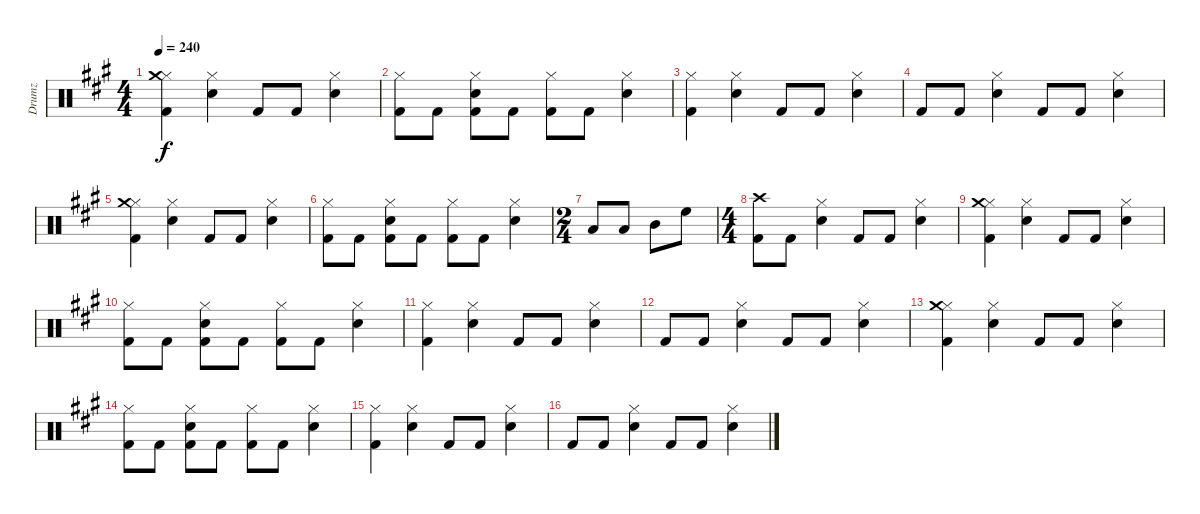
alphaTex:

\track ("Drumz" "Drumz") {instrument percussion}
\staff {score}
\articulation defaults
\ts (4 4)
\tempo 240
\clef neutral
\ks a
("Hi-Hat (closed)" "Crash medium (hit)" "Kick (hit) 2").4{dy f} ("Hi-Hat (closed)" "Electric Snare (hit)").4 "Kick (hit) 2".8 "Kick (hit) 2".8 ("Electric Snare (hit)" "Hi-Hat (closed)").4 |
("Hi-Hat (closed)" "Kick (hit) 2").8 "Kick (hit) 2".8 ("Hi-Hat (closed)" "Electric Snare (hit)" "Kick (hit) 2").8 "Kick (hit) 2".8 ("Hi-Hat (closed)" "Kick (hit) 2").8 "Kick (hit) 2".8 ("Hi-Hat (closed)" "Electric Snare (hit)").4 |
("Hi-Hat (closed)" "Kick (hit) 2").4 ("Hi-Hat (closed)" "Electric Snare (hit)").4 "Kick (hit) 2".8 "Kick (hit) 2".8 ("Electric Snare (hit)" "Hi-Hat (closed)").4 |
"Kick (hit) 2".8 "Kick (hit) 2".8 ("Hi-Hat (closed)" "Electric Snare (hit)").4 "Kick (hit) 2".8 "Kick (hit) 2".8 ("Electric Snare (hit)" "Hi-Hat (closed)").4 |
("Hi-Hat (closed)" "Crash medium (hit)" "Kick (hit) 2").4 ("Hi-Hat (closed)" "Electric Snare (hit)").4 "Kick (hit) 2".8 "Kick (hit) 2".8 ("Electric Snare (hit)" "Hi-Hat (closed)").4 |
("Hi-Hat (closed)" "Kick (hit) 2").8 "Kick (hit) 2".8 ("Hi-Hat (closed)" "Electric Snare (hit)" "Kick (hit) 2").8 "Kick (hit) 2".8 ("Hi-Hat (closed)" "Kick (hit) 2").8 "Kick (hit) 2".8 ("Hi-Hat (closed)" "Electric Snare (hit)").4 |
\ts (2 4)
"Low Floor Tom (hit)".8 "Low Tom (hit)".8 "Mid Tom (hit)".8 "High Floor Tom (hit)".8 |
\ts (4 4)
("Kick (hit) 2" "Crash high (hit)").8 "Kick (hit) 2".8 ("Hi-Hat (closed)" "Electric Snare (hit)").4 "Kick (hit) 2".8 "Kick (hit) 2".8 ("Electric Snare (hit)" "Hi-Hat (closed)").4 |
("Hi-Hat (closed)" "Crash medium (hit)" "Kick (hit) 2").4 ("Hi-Hat (closed)" "Electric Snare (hit)").4 "Kick (hit) 2".8 "Kick (hit) 2".8 ("Electric Snare (hit)" "Hi-Hat (closed)").4 |
("Hi-Hat (closed)" "Kick (hit) 2").8 "Kick (hit) 2".8 ("Hi-Hat (closed)" "Electric Snare (hit)" "Kick (hit) 2").8 "Kick (hit) 2".8 ("Hi-Hat (closed)" "Kick (hit) 2").8 "Kick (hit) 2".8 ("Hi-Hat (closed)" "Electric Snare (hit)").4 |
("Hi-Hat (closed)" "Kick (hit) 2").4 ("Hi-Hat (closed)" "Electric Snare (hit)").4 "Kick (hit) 2".8 "Kick (hit) 2".8 ("Electric Snare (hit)" "Hi-Hat (closed)").4 |
"Kick (hit) 2".8 "Kick (hit) 2".8 ("Hi-Hat (closed)" "Electric Snare (hit)").4 "Kick (hit) 2".8 "Kick (hit) 2".8 ("Electric Snare (hit)" "Hi-Hat (closed)").4 |
("Hi-Hat (closed)" "Crash medium (hit)" "Kick (hit) 2").4 ("Hi-Hat (closed)" "Electric Snare (hit)").4 "Kick (hit) 2".8 "Kick (hit) 2".8 ("Electric Snare (hit)" "Hi-Hat (closed)").4 |
("Hi-Hat (closed)" "Kick (hit) 2").8 "Kick (hit) 2".8 ("Hi-Hat (closed)" "Electric Snare (hit)" "Kick (hit) 2").8 "Kick (hit) 2".8 ("Hi-Hat (closed)" "Kick (hit) 2").8 "Kick (hit) 2".8 ("Hi-Hat (closed)" "Electric Snare (hit)").4 |
("Hi-Hat (closed)" "Kick (hit) 2").4 ("Hi-Hat (closed)" "Electric Snare (hit)").4 "Kick (hit) 2".8 "Kick (hit) 2".8 ("Electric Snare (hit)" "Hi-Hat (closed)").4 |
"Kick (hit) 2".8 "Kick (hit) 2".8 ("Hi-Hat (closed)" "Electric Snare (hit)").4 "Kick (hit) 2".8 "Kick (hit) 2".8 ("Electric Snare (hit)" "Hi-Hat (closed)").4
